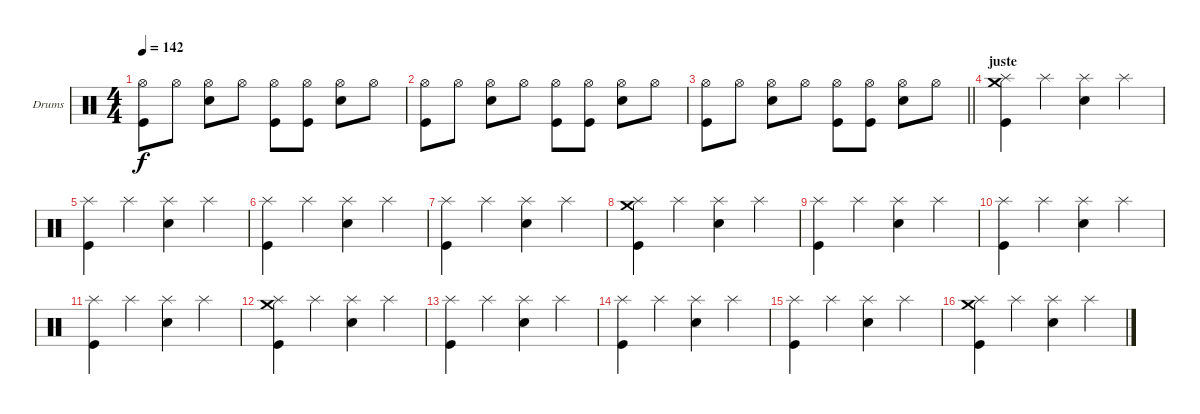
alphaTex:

\bracketExtendMode groupsimilarinstruments
\firstSystemTrackNameOrientation horizontal
\otherSystemsTrackNameOrientation horizontal
\track ("Drumkit" "Drums") {instrument percussion}
\staff {score}
\articulation defaults
\ts (4 4)
\tempo 142
\clef neutral
\ks c
("Hi-Hat (open)" "Kick (hit)").8{dy f} "Hi-Hat (open)".8 ("Hi-Hat (open)" "Snare (hit) 2").8 "Hi-Hat (open)".8 ("Hi-Hat (open)" "Kick (hit)").8 ("Hi-Hat (open)" "Kick (hit)").8 ("Hi-Hat (open)" "Snare (hit) 2").8 "Hi-Hat (open)".8 |
("Hi-Hat (open)" "Kick (hit)").8 "Hi-Hat (open)".8 ("Hi-Hat (open)" "Snare (hit) 2").8 "Hi-Hat (open)".8 ("Hi-Hat (open)" "Kick (hit)").8 ("Hi-Hat (open)" "Kick (hit)").8 ("Hi-Hat (open)" "Snare (hit) 2").8 "Hi-Hat (open)".8 |
\barLineRight lightlight
("Hi-Hat (open)" "Kick (hit)").8 "Hi-Hat (open)".8 ("Hi-Hat (open)" "Snare (hit) 2").8 "Hi-Hat (open)".8 ("Hi-Hat (open)" "Kick (hit)").8 ("Hi-Hat (open)" "Kick (hit)").8 ("Hi-Hat (open)" "Snare (hit) 2").8 "Hi-Hat (open)".8 |
\section ("" "juste")
("Crash medium (hit)" "Splash (hit)" "Kick (hit)").4 "Splash (hit)".4 ("Splash (hit)" "Snare (hit) 2").4 "Splash (hit)".4 |
("Splash (hit)" "Kick (hit)").4 "Splash (hit)".4 ("Splash (hit)" "Snare (hit) 2").4 "Splash (hit)".4 |
("Splash (hit)" "Kick (hit)").4 "Splash (hit)".4 ("Splash (hit)" "Snare (hit) 2").4 "Splash (hit)".4 |
("Splash (hit)" "Kick (hit)").4 "Splash (hit)".4 ("Splash (hit)" "Snare (hit) 2").4 "Splash (hit)".4 |
("Crash medium (hit)" "Splash (hit)" "Kick (hit)").4 "Splash (hit)".4 ("Splash (hit)" "Snare (hit) 2").4 "Splash (hit)".4 |
("Splash (hit)" "Kick (hit)").4 "Splash (hit)".4 ("Splash (hit)" "Snare (hit) 2").4 "Splash (hit)".4 |
("Splash (hit)" "Kick (hit)").4 "Splash (hit)".4 ("Splash (hit)" "Snare (hit) 2").4 "Splash (hit)".4 |
("Splash (hit)" "Kick (hit)").4 "Splash (hit)".4 ("Splash (hit)" "Snare (hit) 2").4 "Splash (hit)".4 |
("Crash medium (hit)" "Splash (hit)" "Kick (hit)").4 "Splash (hit)".4 ("Splash (hit)" "Snare (hit) 2").4 "Splash (hit)".4 |
("Splash (hit)" "Kick (hit)").4 "Splash (hit)".4 ("Splash (hit)" "Snare (hit) 2").4 "Splash (hit)".4 |
("Splash (hit)" "Kick (hit)").4 "Splash (hit)".4 ("Splash (hit)" "Snare (hit) 2").4 "Splash (hit)".4 |
("Splash (hit)" "Kick (hit)").4 "Splash (hit)".4 ("Splash (hit)" "Snare (hit) 2").4 "Splash (hit)".4 |
("Crash medium (hit)" "Splash (hit)" "Kick (hit)").4 "Splash (hit)".4 ("Splash (hit)" "Snare (hit) 2").4 "Splash (hit)".4
